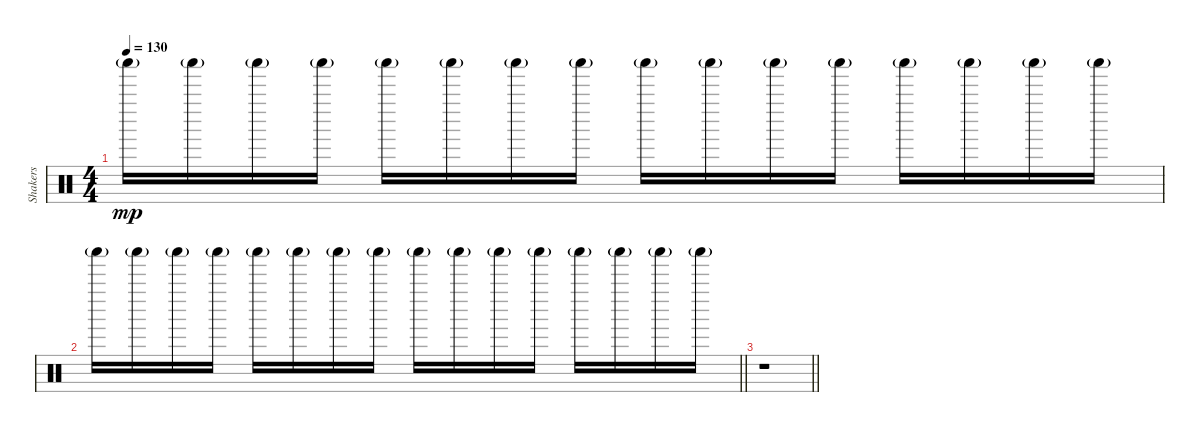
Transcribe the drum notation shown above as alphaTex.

\track ("Shakers" "Shakers") {instrument percussion}
\staff {score}
\articulation defaults
\ts (4 4)
\tempo 130
\clef neutral
\ks c "Shaker (hit)"{g}.16{dy mp} "Shaker (hit)"{g}.16 "Shaker (hit)"{g}.16 "Shaker (hit)"{g}.16 "Shaker (hit)"{g}.16 "Shaker (hit)"{g}.16 "Shaker (hit)"{g}.16 "Shaker (hit)"{g}.16 "Shaker (hit)"{g}.16 "Shaker (hit)"{g}.16 "Shaker (hit)"{g}.16 "Shaker (hit)"{g}.16 "Shaker (hit)"{g}.16 "Shaker (hit)"{g}.16 "Shaker (hit)"{g}.16 "Shaker (hit)"{g}.16
|
\barLineRight lightlight "Shaker (hit)"{g}.16 "Shaker (hit)"{g}.16 "Shaker (hit)"{g}.16 "Shaker (hit)"{g}.16 "Shaker (hit)"{g}.16 "Shaker (hit)"{g}.16 "Shaker (hit)"{g}.16 "Shaker (hit)"{g}.16 "Shaker (hit)"{g}.16 "Shaker (hit)"{g}.16 "Shaker (hit)"{g}.16 "Shaker (hit)"{g}.16 "Shaker (hit)"{g}.16 "Shaker (hit)"{g}.16 "Shaker (hit)"{g}.16 "Shaker (hit)"{g}.16
|
\barLineRight lightlight
r.1
